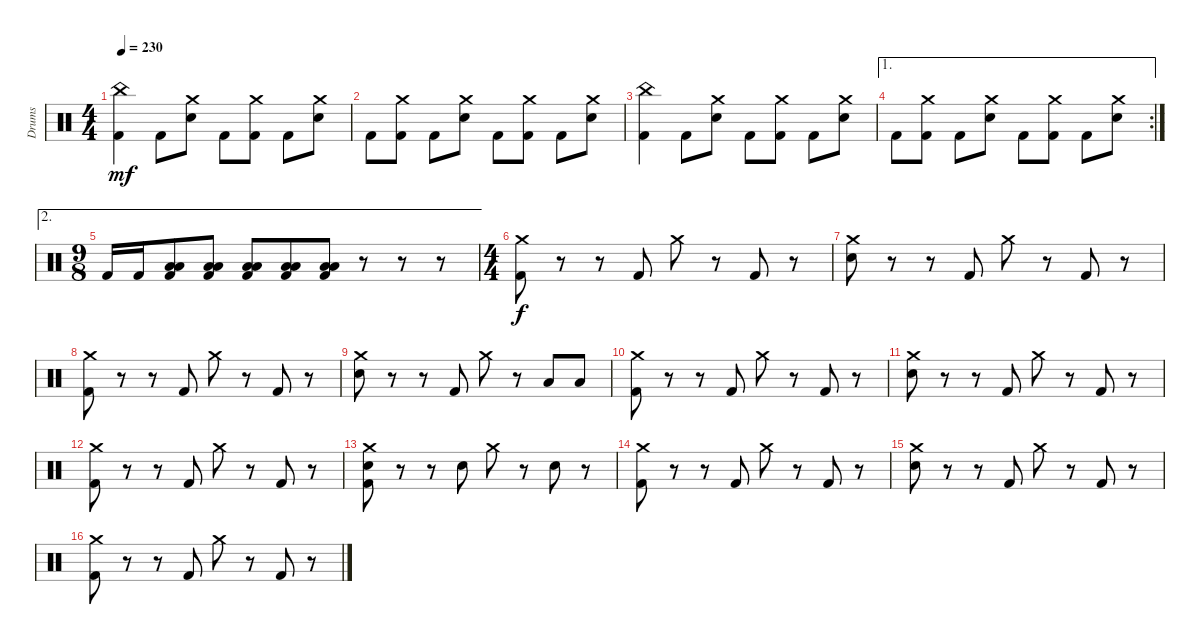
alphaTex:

\track ("Drums" "Drums") {instrument percussion}
\staff {score}
\articulation defaults
\ts (4 4)
\tempo 230
\clef neutral
\ks c
("Kick (hit) 2" "China (hit)").4{dy mf} "Kick (hit) 2".8 ("Electric Snare (hit)" "Crash medium (hit)").8 "Kick (hit) 2".8 ("Kick (hit) 2" "Crash medium (hit)").8 "Kick (hit) 2".8 ("Electric Snare (hit)" "Crash medium (hit)").8 |
"Kick (hit) 2".8 ("Kick (hit) 2" "Crash medium (hit)").8 "Kick (hit) 2".8 ("Electric Snare (hit)" "Crash medium (hit)").8 "Kick (hit) 2".8 ("Kick (hit) 2" "Crash medium (hit)").8 "Kick (hit) 2".8 ("Electric Snare (hit)" "Crash medium (hit)").8 |
("Kick (hit) 2" "China (hit)").4 "Kick (hit) 2".8 ("Electric Snare (hit)" "Crash medium (hit)").8 "Kick (hit) 2".8 ("Kick (hit) 2" "Crash medium (hit)").8 "Kick (hit) 2".8 ("Electric Snare (hit)" "Crash medium (hit)").8 |
\ae 1
\rc 2 "Kick (hit) 2".8
("Kick (hit) 2" "Crash medium (hit)").8 "Kick (hit) 2".8 ("Electric Snare (hit)" "Crash medium (hit)").8 "Kick (hit) 2".8 ("Kick (hit) 2" "Crash medium (hit)").8 "Kick (hit) 2".8 ("Electric Snare (hit)" "Crash medium (hit)").8 |
\ae 2
\ts (9 8)
"Kick (hit) 2".16 "Kick (hit) 2".16 ("Kick (hit) 2" "Low Floor Tom (hit)" "Low Tom (hit)").8 ("Kick (hit) 2" "Low Floor Tom (hit)" "Low Tom (hit)").8 ("Kick (hit) 2" "Low Floor Tom (hit)" "Low Tom (hit)").8 ("Kick (hit) 2" "Low Floor Tom (hit)" "Low Tom (hit)").8 ("Kick (hit) 2" "Low Floor Tom (hit)" "Low Tom (hit)").8 r.8 r.8 r.8 |
\ts (4 4)
("Kick (hit) 2" "Crash medium (hit)").8{dy f} r.8 r.8 "Kick (hit) 2".8 "Crash medium (hit)".8 r.8 "Kick (hit) 2".8 r.8 |
("Electric Snare (hit)" "Crash medium (hit)").8 r.8 r.8 "Kick (hit) 2".8 "Crash medium (hit)".8 r.8 "Kick (hit) 2".8 r.8 |
("Kick (hit) 2" "Crash medium (hit)").8 r.8 r.8 "Kick (hit) 2".8 "Crash medium (hit)".8 r.8 "Kick (hit) 2".8 r.8 |
("Electric Snare (hit)" "Crash medium (hit)").8 r.8 r.8 "Kick (hit) 2".8 "Crash medium (hit)".8 r.8 "Low Tom (hit)".8 "Low Tom (hit)".8 |
("Kick (hit) 2" "Crash medium (hit)").8 r.8 r.8 "Kick (hit) 2".8 "Crash medium (hit)".8 r.8 "Kick (hit) 2".8 r.8 |
("Electric Snare (hit)" "Crash medium (hit)").8 r.8 r.8 "Kick (hit) 2".8 "Crash medium (hit)".8 r.8 "Kick (hit) 2".8 r.8 |
("Kick (hit) 2" "Crash medium (hit)").8 r.8 r.8 "Kick (hit) 2".8 "Crash medium (hit)".8 r.8 "Kick (hit) 2".8 r.8 |
("Kick (hit) 2" "Electric Snare (hit)" "Crash medium (hit)").8 r.8 r.8 "Electric Snare (hit)".8 "Crash medium (hit)".8 r.8 "Electric Snare (hit)".8 r.8 |
("Kick (hit) 2" "Crash medium (hit)").8 r.8 r.8 "Kick (hit) 2".8 "Crash medium (hit)".8 r.8 "Kick (hit) 2".8 r.8 |
("Electric Snare (hit)" "Crash medium (hit)").8 r.8 r.8 "Kick (hit) 2".8 "Crash medium (hit)".8 r.8 "Kick (hit) 2".8 r.8 |
("Kick (hit) 2" "Crash medium (hit)").8 r.8 r.8 "Kick (hit) 2".8 "Crash medium (hit)".8 r.8 "Kick (hit) 2".8 r.8
